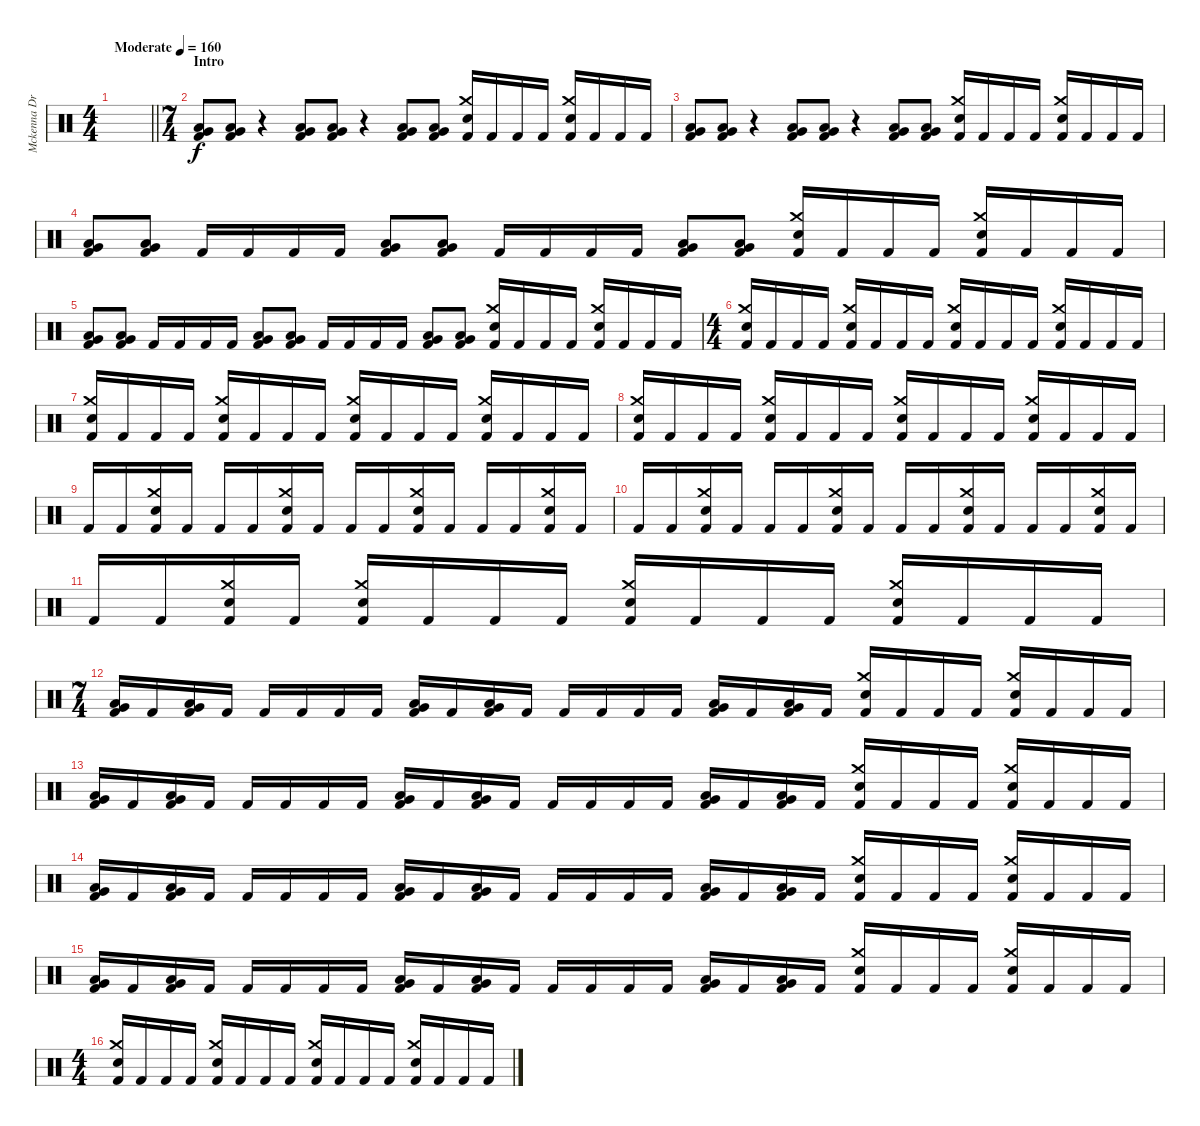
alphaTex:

\track ("Mckenna Drums" "Mckenna Dr") {instrument percussion}
\staff {score}
\articulation defaults
\ts (4 4)
\tempo (160 "Moderate")
\clef neutral
\barLineRight lightlight
\ks c
|
\ts (7 4)
\section ("" "Intro")
("Very Low Tom (hit)" "Low Tom (hit)" "Kick (hit) 2").8 ("Very Low Tom (hit)" "Low Tom (hit)" "Kick (hit) 2").8 r.4 ("Very Low Tom (hit)" "Low Tom (hit)" "Kick (hit) 2").8 ("Very Low Tom (hit)" "Low Tom (hit)" "Kick (hit) 2").8 r.4 ("Very Low Tom (hit)" "Low Tom (hit)" "Kick (hit) 2").8 ("Very Low Tom (hit)" "Low Tom (hit)" "Kick (hit) 2").8 ("Crash medium (hit)" "Electric Snare (hit)" "Kick (hit) 2").16 "Kick (hit) 2".16 "Kick (hit) 2".16 "Kick (hit) 2".16 ("Crash medium (hit)" "Electric Snare (hit)" "Kick (hit) 2").16 "Kick (hit) 2".16 "Kick (hit) 2".16 "Kick (hit) 2".16 |
("Very Low Tom (hit)" "Low Tom (hit)" "Kick (hit) 2").8 ("Very Low Tom (hit)" "Low Tom (hit)" "Kick (hit) 2").8 r.4 ("Very Low Tom (hit)" "Low Tom (hit)" "Kick (hit) 2").8 ("Very Low Tom (hit)" "Low Tom (hit)" "Kick (hit) 2").8 r.4 ("Very Low Tom (hit)" "Low Tom (hit)" "Kick (hit) 2").8 ("Very Low Tom (hit)" "Low Tom (hit)" "Kick (hit) 2").8 ("Crash medium (hit)" "Electric Snare (hit)" "Kick (hit) 2").16 "Kick (hit) 2".16 "Kick (hit) 2".16 "Kick (hit) 2".16 ("Crash medium (hit)" "Electric Snare (hit)" "Kick (hit) 2").16 "Kick (hit) 2".16 "Kick (hit) 2".16 "Kick (hit) 2".16 |
("Very Low Tom (hit)" "Low Tom (hit)" "Kick (hit) 2").8 ("Very Low Tom (hit)" "Low Tom (hit)" "Kick (hit) 2").8 "Kick (hit) 2".16 "Kick (hit) 2".16 "Kick (hit) 2".16 "Kick (hit) 2".16 ("Very Low Tom (hit)" "Low Tom (hit)" "Kick (hit) 2").8 ("Very Low Tom (hit)" "Low Tom (hit)" "Kick (hit) 2").8 "Kick (hit) 2".16 "Kick (hit) 2".16 "Kick (hit) 2".16 "Kick (hit) 2".16 ("Very Low Tom (hit)" "Low Tom (hit)" "Kick (hit) 2").8 ("Very Low Tom (hit)" "Low Tom (hit)" "Kick (hit) 2").8 ("Crash medium (hit)" "Electric Snare (hit)" "Kick (hit) 2").16 "Kick (hit) 2".16 "Kick (hit) 2".16 "Kick (hit) 2".16 ("Crash medium (hit)" "Electric Snare (hit)" "Kick (hit) 2").16 "Kick (hit) 2".16 "Kick (hit) 2".16 "Kick (hit) 2".16 |
("Very Low Tom (hit)" "Low Tom (hit)" "Kick (hit) 2").8 ("Very Low Tom (hit)" "Low Tom (hit)" "Kick (hit) 2").8 "Kick (hit) 2".16 "Kick (hit) 2".16 "Kick (hit) 2".16 "Kick (hit) 2".16 ("Very Low Tom (hit)" "Low Tom (hit)" "Kick (hit) 2").8 ("Very Low Tom (hit)" "Low Tom (hit)" "Kick (hit) 2").8 "Kick (hit) 2".16 "Kick (hit) 2".16 "Kick (hit) 2".16 "Kick (hit) 2".16 ("Very Low Tom (hit)" "Low Tom (hit)" "Kick (hit) 2").8 ("Very Low Tom (hit)" "Low Tom (hit)" "Kick (hit) 2").8 ("Crash medium (hit)" "Electric Snare (hit)" "Kick (hit) 2").16 "Kick (hit) 2".16 "Kick (hit) 2".16 "Kick (hit) 2".16 ("Crash medium (hit)" "Electric Snare (hit)" "Kick (hit) 2").16 "Kick (hit) 2".16 "Kick (hit) 2".16 "Kick (hit) 2".16 |
\ts (4 4)
("Crash medium (hit)" "Electric Snare (hit)" "Kick (hit) 2").16 "Kick (hit) 2".16 "Kick (hit) 2".16 "Kick (hit) 2".16 ("Crash medium (hit)" "Electric Snare (hit)" "Kick (hit) 2").16 "Kick (hit) 2".16 "Kick (hit) 2".16 "Kick (hit) 2".16 ("Crash medium (hit)" "Electric Snare (hit)" "Kick (hit) 2").16 "Kick (hit) 2".16 "Kick (hit) 2".16 "Kick (hit) 2".16 ("Crash medium (hit)" "Electric Snare (hit)" "Kick (hit) 2").16 "Kick (hit) 2".16 "Kick (hit) 2".16 "Kick (hit) 2".16 |
("Crash medium (hit)" "Electric Snare (hit)" "Kick (hit) 2").16 "Kick (hit) 2".16 "Kick (hit) 2".16 "Kick (hit) 2".16 ("Crash medium (hit)" "Electric Snare (hit)" "Kick (hit) 2").16 "Kick (hit) 2".16 "Kick (hit) 2".16 "Kick (hit) 2".16 ("Crash medium (hit)" "Electric Snare (hit)" "Kick (hit) 2").16 "Kick (hit) 2".16 "Kick (hit) 2".16 "Kick (hit) 2".16 ("Crash medium (hit)" "Electric Snare (hit)" "Kick (hit) 2").16 "Kick (hit) 2".16 "Kick (hit) 2".16 "Kick (hit) 2".16 |
("Crash medium (hit)" "Electric Snare (hit)" "Kick (hit) 2").16 "Kick (hit) 2".16 "Kick (hit) 2".16 "Kick (hit) 2".16 ("Crash medium (hit)" "Electric Snare (hit)" "Kick (hit) 2").16 "Kick (hit) 2".16 "Kick (hit) 2".16 "Kick (hit) 2".16 ("Crash medium (hit)" "Electric Snare (hit)" "Kick (hit) 2").16 "Kick (hit) 2".16 "Kick (hit) 2".16 "Kick (hit) 2".16 ("Crash medium (hit)" "Electric Snare (hit)" "Kick (hit) 2").16 "Kick (hit) 2".16 "Kick (hit) 2".16 "Kick (hit) 2".16 |
"Kick (hit) 2".16 "Kick (hit) 2".16 ("Crash medium (hit)" "Electric Snare (hit)" "Kick (hit) 2").16 "Kick (hit) 2".16 "Kick (hit) 2".16 "Kick (hit) 2".16 ("Crash medium (hit)" "Electric Snare (hit)" "Kick (hit) 2").16 "Kick (hit) 2".16 "Kick (hit) 2".16 "Kick (hit) 2".16 ("Crash medium (hit)" "Electric Snare (hit)" "Kick (hit) 2").16 "Kick (hit) 2".16 "Kick (hit) 2".16 "Kick (hit) 2".16 ("Crash medium (hit)" "Electric Snare (hit)" "Kick (hit) 2").16 "Kick (hit) 2".16 |
"Kick (hit) 2".16 "Kick (hit) 2".16 ("Crash medium (hit)" "Electric Snare (hit)" "Kick (hit) 2").16 "Kick (hit) 2".16 "Kick (hit) 2".16 "Kick (hit) 2".16 ("Crash medium (hit)" "Electric Snare (hit)" "Kick (hit) 2").16 "Kick (hit) 2".16 "Kick (hit) 2".16 "Kick (hit) 2".16 ("Crash medium (hit)" "Electric Snare (hit)" "Kick (hit) 2").16 "Kick (hit) 2".16 "Kick (hit) 2".16 "Kick (hit) 2".16 ("Crash medium (hit)" "Electric Snare (hit)" "Kick (hit) 2").16 "Kick (hit) 2".16 |
"Kick (hit) 2".16 "Kick (hit) 2".16 ("Crash medium (hit)" "Electric Snare (hit)" "Kick (hit) 2").16 "Kick (hit) 2".16 ("Crash medium (hit)" "Electric Snare (hit)" "Kick (hit) 2").16 "Kick (hit) 2".16 "Kick (hit) 2".16 "Kick (hit) 2".16 ("Crash medium (hit)" "Electric Snare (hit)" "Kick (hit) 2").16 "Kick (hit) 2".16 "Kick (hit) 2".16 "Kick (hit) 2".16 ("Crash medium (hit)" "Electric Snare (hit)" "Kick (hit) 2").16 "Kick (hit) 2".16 "Kick (hit) 2".16 "Kick (hit) 2".16 |
\ts (7 4)
("Very Low Tom (hit)" "Low Tom (hit)" "Kick (hit) 2").16 "Kick (hit) 2".16 ("Very Low Tom (hit)" "Low Tom (hit)" "Kick (hit) 2").16 "Kick (hit) 2".16 "Kick (hit) 2".16 "Kick (hit) 2".16 "Kick (hit) 2".16 "Kick (hit) 2".16 ("Very Low Tom (hit)" "Low Tom (hit)" "Kick (hit) 2").16 "Kick (hit) 2".16 ("Very Low Tom (hit)" "Low Tom (hit)" "Kick (hit) 2").16 "Kick (hit) 2".16 "Kick (hit) 2".16 "Kick (hit) 2".16 "Kick (hit) 2".16 "Kick (hit) 2".16 ("Very Low Tom (hit)" "Low Tom (hit)" "Kick (hit) 2").16 "Kick (hit) 2".16 ("Very Low Tom (hit)" "Low Tom (hit)" "Kick (hit) 2").16 "Kick (hit) 2".16 ("Crash medium (hit)" "Electric Snare (hit)" "Kick (hit) 2").16 "Kick (hit) 2".16 "Kick (hit) 2".16 "Kick (hit) 2".16 ("Crash medium (hit)" "Electric Snare (hit)" "Kick (hit) 2").16 "Kick (hit) 2".16 "Kick (hit) 2".16 "Kick (hit) 2".16 |
("Very Low Tom (hit)" "Low Tom (hit)" "Kick (hit) 2").16 "Kick (hit) 2".16 ("Very Low Tom (hit)" "Low Tom (hit)" "Kick (hit) 2").16 "Kick (hit) 2".16 "Kick (hit) 2".16 "Kick (hit) 2".16 "Kick (hit) 2".16 "Kick (hit) 2".16 ("Very Low Tom (hit)" "Low Tom (hit)" "Kick (hit) 2").16 "Kick (hit) 2".16 ("Very Low Tom (hit)" "Low Tom (hit)" "Kick (hit) 2").16 "Kick (hit) 2".16 "Kick (hit) 2".16 "Kick (hit) 2".16 "Kick (hit) 2".16 "Kick (hit) 2".16 ("Very Low Tom (hit)" "Low Tom (hit)" "Kick (hit) 2").16 "Kick (hit) 2".16 ("Very Low Tom (hit)" "Low Tom (hit)" "Kick (hit) 2").16 "Kick (hit) 2".16 ("Crash medium (hit)" "Electric Snare (hit)" "Kick (hit) 2").16 "Kick (hit) 2".16 "Kick (hit) 2".16 "Kick (hit) 2".16 ("Crash medium (hit)" "Electric Snare (hit)" "Kick (hit) 2").16 "Kick (hit) 2".16 "Kick (hit) 2".16 "Kick (hit) 2".16 |
("Very Low Tom (hit)" "Low Tom (hit)" "Kick (hit) 2").16 "Kick (hit) 2".16 ("Very Low Tom (hit)" "Low Tom (hit)" "Kick (hit) 2").16 "Kick (hit) 2".16 "Kick (hit) 2".16 "Kick (hit) 2".16 "Kick (hit) 2".16 "Kick (hit) 2".16 ("Very Low Tom (hit)" "Low Tom (hit)" "Kick (hit) 2").16 "Kick (hit) 2".16 ("Very Low Tom (hit)" "Low Tom (hit)" "Kick (hit) 2").16 "Kick (hit) 2".16 "Kick (hit) 2".16 "Kick (hit) 2".16 "Kick (hit) 2".16 "Kick (hit) 2".16 ("Very Low Tom (hit)" "Low Tom (hit)" "Kick (hit) 2").16 "Kick (hit) 2".16 ("Very Low Tom (hit)" "Low Tom (hit)" "Kick (hit) 2").16 "Kick (hit) 2".16 ("Crash medium (hit)" "Electric Snare (hit)" "Kick (hit) 2").16 "Kick (hit) 2".16 "Kick (hit) 2".16 "Kick (hit) 2".16 ("Crash medium (hit)" "Electric Snare (hit)" "Kick (hit) 2").16 "Kick (hit) 2".16 "Kick (hit) 2".16 "Kick (hit) 2".16 |
("Very Low Tom (hit)" "Low Tom (hit)" "Kick (hit) 2").16 "Kick (hit) 2".16 ("Very Low Tom (hit)" "Low Tom (hit)" "Kick (hit) 2").16 "Kick (hit) 2".16 "Kick (hit) 2".16 "Kick (hit) 2".16 "Kick (hit) 2".16 "Kick (hit) 2".16 ("Very Low Tom (hit)" "Low Tom (hit)" "Kick (hit) 2").16 "Kick (hit) 2".16 ("Very Low Tom (hit)" "Low Tom (hit)" "Kick (hit) 2").16 "Kick (hit) 2".16 "Kick (hit) 2".16 "Kick (hit) 2".16 "Kick (hit) 2".16 "Kick (hit) 2".16 ("Very Low Tom (hit)" "Low Tom (hit)" "Kick (hit) 2").16 "Kick (hit) 2".16 ("Very Low Tom (hit)" "Low Tom (hit)" "Kick (hit) 2").16 "Kick (hit) 2".16 ("Crash medium (hit)" "Electric Snare (hit)" "Kick (hit) 2").16 "Kick (hit) 2".16 "Kick (hit) 2".16 "Kick (hit) 2".16 ("Crash medium (hit)" "Electric Snare (hit)" "Kick (hit) 2").16 "Kick (hit) 2".16 "Kick (hit) 2".16 "Kick (hit) 2".16 |
\ts (4 4)
("Crash medium (hit)" "Electric Snare (hit)" "Kick (hit) 2").16 "Kick (hit) 2".16 "Kick (hit) 2".16 "Kick (hit) 2".16 ("Crash medium (hit)" "Electric Snare (hit)" "Kick (hit) 2").16 "Kick (hit) 2".16 "Kick (hit) 2".16 "Kick (hit) 2".16 ("Crash medium (hit)" "Electric Snare (hit)" "Kick (hit) 2").16 "Kick (hit) 2".16 "Kick (hit) 2".16 "Kick (hit) 2".16 ("Crash medium (hit)" "Electric Snare (hit)" "Kick (hit) 2").16 "Kick (hit) 2".16 "Kick (hit) 2".16 "Kick (hit) 2".16
